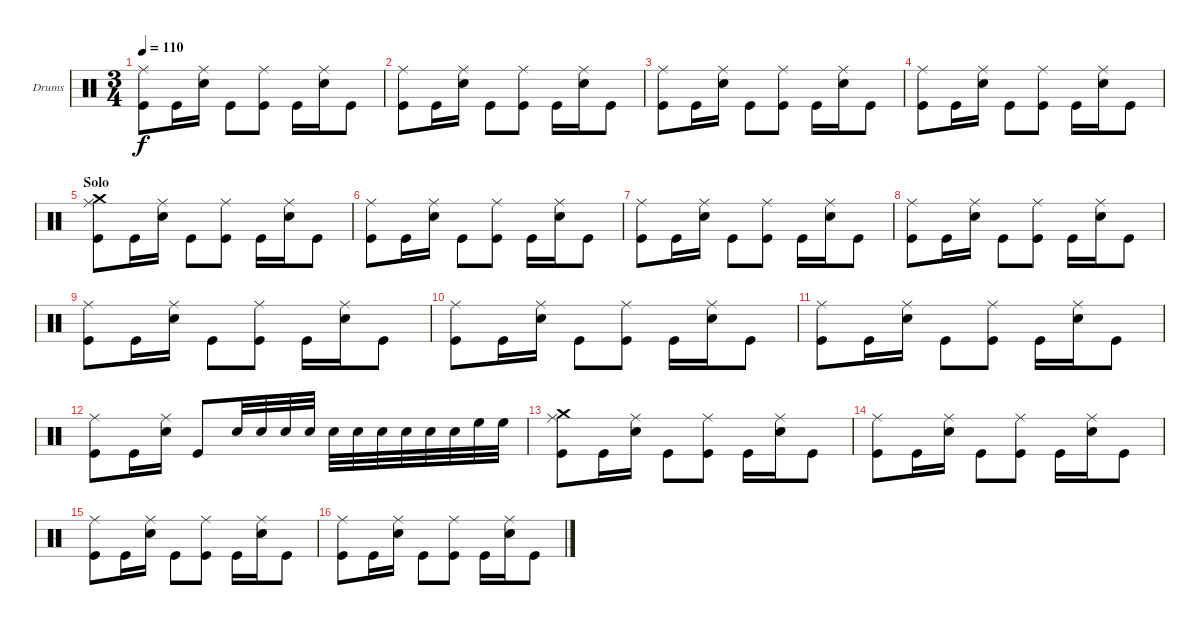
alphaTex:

\defaultSystemsLayout 4
\bracketExtendMode nobrackets
\firstSystemTrackNameOrientation horizontal
\otherSystemsTrackNameOrientation horizontal
\track ("Drumkit" "Drums") {instrument percussion}
\staff {score}
\articulation defaults
\ts (3 4)
\tempo 110
\clef neutral
\ks c
("Ride (middle)" "Kick (hit)").8{dy f} "Kick (hit)".16 ("Ride (middle)" "Snare (hit) 2").16 "Kick (hit)".8 ("Ride (middle)" "Kick (hit)").8 "Kick (hit)".16 ("Ride (middle)" "Snare (hit) 2").16 "Kick (hit)".8 |
("Ride (middle)" "Kick (hit)").8 "Kick (hit)".16 ("Ride (middle)" "Snare (hit) 2").16 "Kick (hit)".8 ("Ride (middle)" "Kick (hit)").8 "Kick (hit)".16 ("Ride (middle)" "Snare (hit) 2").16 "Kick (hit)".8 |
("Ride (middle)" "Kick (hit)").8 "Kick (hit)".16 ("Ride (middle)" "Snare (hit) 2").16 "Kick (hit)".8 ("Ride (middle)" "Kick (hit)").8 "Kick (hit)".16 ("Ride (middle)" "Snare (hit) 2").16 "Kick (hit)".8 |
("Ride (middle)" "Kick (hit)").8 "Kick (hit)".16 ("Ride (middle)" "Snare (hit) 2").16 "Kick (hit)".8 ("Ride (middle)" "Kick (hit)").8 "Kick (hit)".16 ("Ride (middle)" "Snare (hit) 2").16 "Kick (hit)".8 |
\section ("" "Solo")
("Ride (middle)" "Crash medium (hit)" "Kick (hit)").8 "Kick (hit)".16 ("Ride (middle)" "Snare (hit) 2").16 "Kick (hit)".8 ("Ride (middle)" "Kick (hit)").8 "Kick (hit)".16 ("Ride (middle)" "Snare (hit) 2").16 "Kick (hit)".8 |
("Ride (middle)" "Kick (hit)").8 "Kick (hit)".16 ("Ride (middle)" "Snare (hit) 2").16 "Kick (hit)".8 ("Ride (middle)" "Kick (hit)").8 "Kick (hit)".16 ("Ride (middle)" "Snare (hit) 2").16 "Kick (hit)".8 |
("Ride (middle)" "Kick (hit)").8 "Kick (hit)".16 ("Ride (middle)" "Snare (hit) 2").16 "Kick (hit)".8 ("Ride (middle)" "Kick (hit)").8 "Kick (hit)".16 ("Ride (middle)" "Snare (hit) 2").16 "Kick (hit)".8 |
("Ride (middle)" "Kick (hit)").8 "Kick (hit)".16 ("Ride (middle)" "Snare (hit) 2").16 "Kick (hit)".8 ("Ride (middle)" "Kick (hit)").8 "Kick (hit)".16 ("Ride (middle)" "Snare (hit) 2").16 "Kick (hit)".8 |
("Ride (middle)" "Kick (hit)").8 "Kick (hit)".16 ("Ride (middle)" "Snare (hit) 2").16 "Kick (hit)".8 ("Ride (middle)" "Kick (hit)").8 "Kick (hit)".16 ("Ride (middle)" "Snare (hit) 2").16 "Kick (hit)".8 |
("Ride (middle)" "Kick (hit)").8 "Kick (hit)".16 ("Ride (middle)" "Snare (hit) 2").16 "Kick (hit)".8 ("Ride (middle)" "Kick (hit)").8 "Kick (hit)".16 ("Ride (middle)" "Snare (hit) 2").16 "Kick (hit)".8 |
("Ride (middle)" "Kick (hit)").8 "Kick (hit)".16 ("Ride (middle)" "Snare (hit) 2").16 "Kick (hit)".8 ("Ride (middle)" "Kick (hit)").8 "Kick (hit)".16 ("Ride (middle)" "Snare (hit) 2").16 "Kick (hit)".8 |
("Ride (middle)" "Kick (hit)").8 "Kick (hit)".16 ("Ride (middle)" "Snare (hit) 2").16 "Kick (hit)".8 "Snare (hit) 2".32 "Snare (hit) 2".32 "Snare (hit) 2".32 "Snare (hit) 2".32 "Snare (hit) 2".32 "Snare (hit) 2".32 "Snare (hit) 2".32 "Snare (hit) 2".32 "Snare (hit) 2".32 "Snare (hit) 2".32 "High Floor Tom (hit)".32 "High Floor Tom (hit)".32 |
("Ride (middle)" "Crash medium (hit)" "Kick (hit)").8 "Kick (hit)".16 ("Ride (middle)" "Snare (hit) 2").16 "Kick (hit)".8 ("Ride (middle)" "Kick (hit)").8 "Kick (hit)".16 ("Ride (middle)" "Snare (hit) 2").16 "Kick (hit)".8 |
("Ride (middle)" "Kick (hit)").8 "Kick (hit)".16 ("Ride (middle)" "Snare (hit) 2").16 "Kick (hit)".8 ("Ride (middle)" "Kick (hit)").8 "Kick (hit)".16 ("Ride (middle)" "Snare (hit) 2").16 "Kick (hit)".8 |
("Ride (middle)" "Kick (hit)").8 "Kick (hit)".16 ("Ride (middle)" "Snare (hit) 2").16 "Kick (hit)".8 ("Ride (middle)" "Kick (hit)").8 "Kick (hit)".16 ("Ride (middle)" "Snare (hit) 2").16 "Kick (hit)".8 |
("Ride (middle)" "Kick (hit)").8 "Kick (hit)".16 ("Ride (middle)" "Snare (hit) 2").16 "Kick (hit)".8 ("Ride (middle)" "Kick (hit)").8 "Kick (hit)".16 ("Ride (middle)" "Snare (hit) 2").16 "Kick (hit)".8
